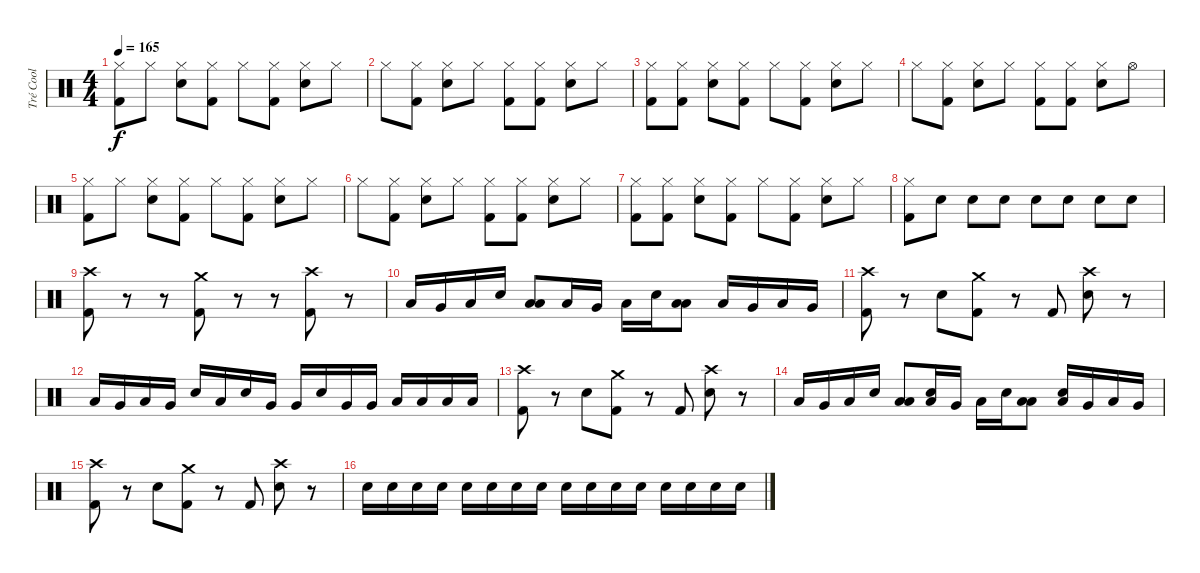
\track ("Tré Cool" "Tré Cool") {instrument percussion}
\staff {score}
\articulation defaults
\ts (4 4)
\tempo 165
\clef neutral
\ks c
("Hi-Hat (closed)" "Kick (hit) 2").8{dy f} "Hi-Hat (closed)".8 ("Hi-Hat (closed)" "Electric Snare (hit)").8 ("Hi-Hat (closed)" "Kick (hit) 2").8 "Hi-Hat (closed)".8 ("Hi-Hat (closed)" "Kick (hit) 2").8 ("Hi-Hat (closed)" "Electric Snare (hit)").8 "Hi-Hat (closed)".8 |
"Hi-Hat (closed)".8 ("Hi-Hat (closed)" "Kick (hit) 2").8 ("Hi-Hat (closed)" "Electric Snare (hit)").8 "Hi-Hat (closed)".8 ("Hi-Hat (closed)" "Kick (hit) 2").8 ("Hi-Hat (closed)" "Kick (hit) 2").8 ("Hi-Hat (closed)" "Electric Snare (hit)").8 "Hi-Hat (closed)".8 |
("Hi-Hat (closed)" "Kick (hit) 2").8 ("Hi-Hat (closed)" "Kick (hit) 2").8 ("Hi-Hat (closed)" "Electric Snare (hit)").8 ("Hi-Hat (closed)" "Kick (hit) 2").8 "Hi-Hat (closed)".8 ("Hi-Hat (closed)" "Kick (hit) 2").8 ("Hi-Hat (closed)" "Electric Snare (hit)").8 "Hi-Hat (closed)".8 |
"Hi-Hat (closed)".8 ("Hi-Hat (closed)" "Kick (hit) 2").8 ("Hi-Hat (closed)" "Electric Snare (hit)").8 "Hi-Hat (closed)".8 ("Hi-Hat (closed)" "Kick (hit) 2").8 ("Hi-Hat (closed)" "Kick (hit) 2").8 ("Hi-Hat (closed)" "Electric Snare (hit)").8 "Hi-Hat (open)".8 |
("Hi-Hat (closed)" "Kick (hit) 2").8 "Hi-Hat (closed)".8 ("Hi-Hat (closed)" "Electric Snare (hit)").8 ("Hi-Hat (closed)" "Kick (hit) 2").8 "Hi-Hat (closed)".8 ("Hi-Hat (closed)" "Kick (hit) 2").8 ("Hi-Hat (closed)" "Electric Snare (hit)").8 "Hi-Hat (closed)".8 |
"Hi-Hat (closed)".8 ("Hi-Hat (closed)" "Kick (hit) 2").8 ("Hi-Hat (closed)" "Electric Snare (hit)").8 "Hi-Hat (closed)".8 ("Hi-Hat (closed)" "Kick (hit) 2").8 ("Hi-Hat (closed)" "Kick (hit) 2").8 ("Hi-Hat (closed)" "Electric Snare (hit)").8 "Hi-Hat (closed)".8 |
("Hi-Hat (closed)" "Kick (hit) 2").8 ("Hi-Hat (closed)" "Kick (hit) 2").8 ("Hi-Hat (closed)" "Electric Snare (hit)").8 ("Hi-Hat (closed)" "Kick (hit) 2").8 "Hi-Hat (closed)".8 ("Hi-Hat (closed)" "Kick (hit) 2").8 ("Hi-Hat (closed)" "Electric Snare (hit)").8 "Hi-Hat (closed)".8 |
("Hi-Hat (closed)" "Kick (hit) 2").8 "Electric Snare (hit)".8 "Electric Snare (hit)".8 "Electric Snare (hit)".8 "Electric Snare (hit)".8 "Electric Snare (hit)".8 "Electric Snare (hit)".8 "Electric Snare (hit)".8 |
("Crash high (hit)" "Kick (hit) 2").8 r.8 r.8 ("Crash medium (hit)" "Kick (hit) 2").8 r.8 r.8 ("Crash high (hit)" "Kick (hit) 2").8 r.8 |
"Low Floor Tom (hit)".16 "Very Low Tom (hit)".16 "Low Floor Tom (hit)".16 "Electric Snare (hit)".16 ("Low Tom (hit)" "Low Floor Tom (hit)").8 "Low Floor Tom (hit)".16 "Very Low Tom (hit)".16 "Low Floor Tom (hit)".16 "Electric Snare (hit)".16 ("Low Tom (hit)" "Low Floor Tom (hit)").8 "Low Floor Tom (hit)".16 "Very Low Tom (hit)".16 "Low Floor Tom (hit)".16 "Very Low Tom (hit)".16 |
("Crash high (hit)" "Kick (hit) 2").8 r.8 "Electric Snare (hit)".8 ("Crash medium (hit)" "Kick (hit) 2").8 r.8 "Kick (hit) 2".8 ("Crash high (hit)" "Electric Snare (hit)").8 r.8 |
"Low Floor Tom (hit)".16 "Very Low Tom (hit)".16 "Low Floor Tom (hit)".16 "Very Low Tom (hit)".16 "Electric Snare (hit)".16 "Low Floor Tom (hit)".16 "Electric Snare (hit)".16 "Very Low Tom (hit)".16 "Very Low Tom (hit)".16 "Electric Snare (hit)".16 "Very Low Tom (hit)".16 "Very Low Tom (hit)".16 "Low Floor Tom (hit)".16 "Low Floor Tom (hit)".16 "Low Floor Tom (hit)".16 "Low Floor Tom (hit)".16 |
("Crash high (hit)" "Kick (hit) 2").8 r.8 "Electric Snare (hit)".8 ("Crash medium (hit)" "Kick (hit) 2").8 r.8 "Kick (hit) 2".8 ("Crash high (hit)" "Electric Snare (hit)").8 r.8 |
"Low Floor Tom (hit)".16 "Very Low Tom (hit)".16 "Low Floor Tom (hit)".16 "Electric Snare (hit)".16 ("Low Tom (hit)" "Low Floor Tom (hit)").8 ("Electric Snare (hit)" "Low Floor Tom (hit)").16 "Very Low Tom (hit)".16 "Low Floor Tom (hit)".16 "Electric Snare (hit)".16 ("Low Tom (hit)" "Low Floor Tom (hit)").8 ("Electric Snare (hit)" "Low Floor Tom (hit)").16 "Very Low Tom (hit)".16 "Low Floor Tom (hit)".16 "Very Low Tom (hit)".16 |
("Crash high (hit)" "Kick (hit) 2").8 r.8 "Electric Snare (hit)".8 ("Crash medium (hit)" "Kick (hit) 2").8 r.8 "Kick (hit) 2".8 ("Crash high (hit)" "Electric Snare (hit)").8 r.8 |
"Electric Snare (hit)".16 "Electric Snare (hit)".16 "Electric Snare (hit)".16 "Electric Snare (hit)".16 "Electric Snare (hit)".16 "Electric Snare (hit)".16 "Electric Snare (hit)".16 "Electric Snare (hit)".16 "Electric Snare (hit)".16 "Electric Snare (hit)".16 "Electric Snare (hit)".16 "Electric Snare (hit)".16 "Electric Snare (hit)".16 "Electric Snare (hit)".16 "Electric Snare (hit)".16 "Electric Snare (hit)".16
